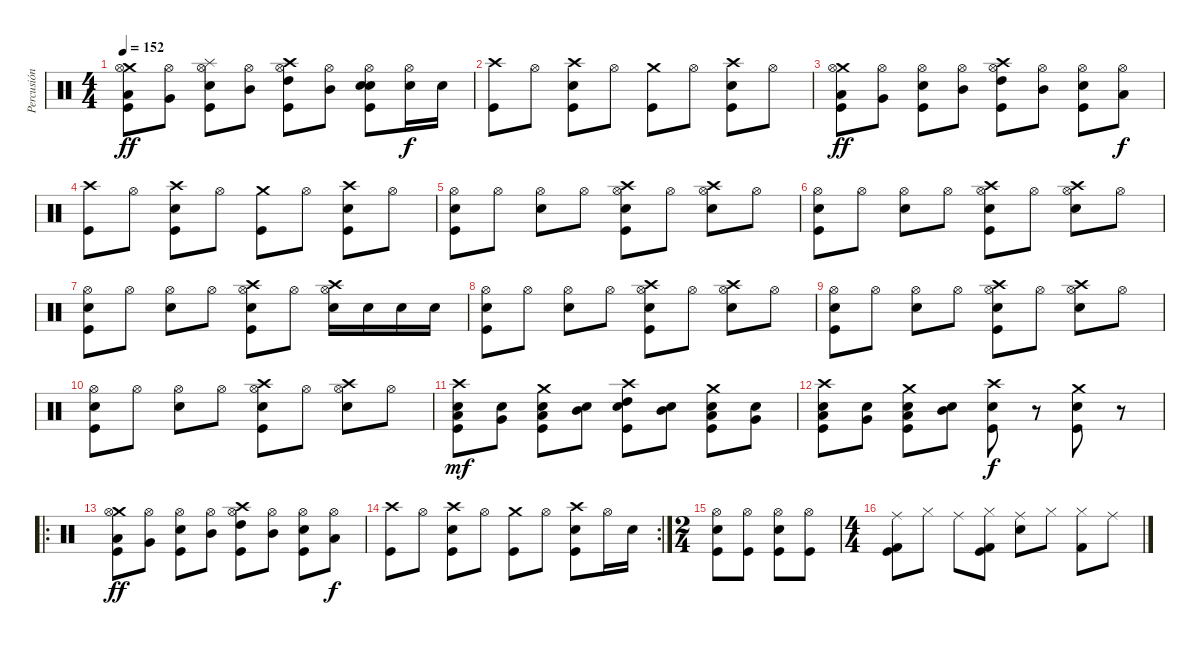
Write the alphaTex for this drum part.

\track ("Percusión" "Percusión") {instrument percussion}
\staff {score}
\articulation defaults
\ts (4 4)
\tempo 152
\clef neutral
\ks c
("Low Floor Tom (hit)" "Crash medium (hit)" "Kick (hit)" "Hi-Hat (open)").8{dy ff} ("Very Low Tom (hit)" "Hi-Hat (open)").8 ("Electric Snare (hit)" "Splash (hit)" "Kick (hit)" "Hi-Hat (open)").8 ("Mid Tom (hit)" "Hi-Hat (open)").8 ("High Tom (hit)" "Crash high (hit)" "Kick (hit)" "Hi-Hat (open)").8 ("Mid Tom (hit)" "Hi-Hat (open)").8 ("Electric Snare (hit)" "Snare (hit)" "Kick (hit)" "Hi-Hat (open)").8 ("Electric Snare (hit)" "Hi-Hat (open)").16{dy f} "Electric Snare (hit)".16 |
("Crash high (hit)" "Kick (hit)").8 "Hi-Hat (open)".8 ("Crash high (hit)" "Electric Snare (hit)" "Kick (hit)").8 "Hi-Hat (open)".8 ("Crash medium (hit)" "Kick (hit)").8 "Hi-Hat (open)".8 ("Crash high (hit)" "Electric Snare (hit)" "Kick (hit)").8 "Hi-Hat (open)".8 |
("Low Floor Tom (hit)" "Crash medium (hit)" "Kick (hit)" "Hi-Hat (open)").8{dy ff} ("Very Low Tom (hit)" "Hi-Hat (open)").8 ("Electric Snare (hit)" "Kick (hit)" "Hi-Hat (open)").8 ("Mid Tom (hit)" "Hi-Hat (open)").8 ("High Tom (hit)" "Crash high (hit)" "Kick (hit)" "Hi-Hat (open)").8 ("Mid Tom (hit)" "Hi-Hat (open)").8 ("Electric Snare (hit)" "Kick (hit)" "Hi-Hat (open)").8 ("Low Tom (hit)" "Hi-Hat (open)").8{dy f} |
("Crash high (hit)" "Kick (hit)").8 "Hi-Hat (open)".8 ("Crash high (hit)" "Electric Snare (hit)" "Kick (hit)").8 "Hi-Hat (open)".8 ("Crash medium (hit)" "Kick (hit)").8 "Hi-Hat (open)".8 ("Crash high (hit)" "Electric Snare (hit)" "Kick (hit)").8 "Hi-Hat (open)".8 |
("Hi-Hat (open)" "Electric Snare (hit)" "Kick (hit)").8 "Hi-Hat (open)".8 ("Hi-Hat (open)" "Electric Snare (hit)").8 "Hi-Hat (open)".8 ("Hi-Hat (open)" "Electric Snare (hit)" "Crash high (hit)" "Kick (hit)").8 "Hi-Hat (open)".8 ("Hi-Hat (open)" "Electric Snare (hit)" "Crash high (hit)").8 "Hi-Hat (open)".8 |
("Hi-Hat (open)" "Electric Snare (hit)" "Kick (hit)").8 "Hi-Hat (open)".8 ("Hi-Hat (open)" "Electric Snare (hit)").8 "Hi-Hat (open)".8 ("Hi-Hat (open)" "Electric Snare (hit)" "Crash high (hit)" "Kick (hit)").8 "Hi-Hat (open)".8 ("Hi-Hat (open)" "Electric Snare (hit)" "Crash high (hit)").8 "Hi-Hat (open)".8 |
("Hi-Hat (open)" "Electric Snare (hit)" "Kick (hit)").8 "Hi-Hat (open)".8 ("Hi-Hat (open)" "Electric Snare (hit)").8 "Hi-Hat (open)".8 ("Hi-Hat (open)" "Electric Snare (hit)" "Crash high (hit)" "Kick (hit)").8 "Hi-Hat (open)".8 ("Hi-Hat (open)" "Electric Snare (hit)" "Crash high (hit)").16 "Electric Snare (hit)".16 "Electric Snare (hit)".16 "Electric Snare (hit)".16 |
("Hi-Hat (open)" "Electric Snare (hit)" "Kick (hit)").8 "Hi-Hat (open)".8 ("Hi-Hat (open)" "Electric Snare (hit)").8 "Hi-Hat (open)".8 ("Hi-Hat (open)" "Electric Snare (hit)" "Crash high (hit)" "Kick (hit)").8 "Hi-Hat (open)".8 ("Hi-Hat (open)" "Electric Snare (hit)" "Crash high (hit)").8 "Hi-Hat (open)".8 |
("Hi-Hat (open)" "Electric Snare (hit)" "Kick (hit)").8 "Hi-Hat (open)".8 ("Hi-Hat (open)" "Electric Snare (hit)").8 "Hi-Hat (open)".8 ("Hi-Hat (open)" "Electric Snare (hit)" "Crash high (hit)" "Kick (hit)").8 "Hi-Hat (open)".8 ("Hi-Hat (open)" "Electric Snare (hit)" "Crash high (hit)").8 "Hi-Hat (open)".8 |
("Hi-Hat (open)" "Electric Snare (hit)" "Kick (hit)").8 "Hi-Hat (open)".8 ("Hi-Hat (open)" "Electric Snare (hit)").8 "Hi-Hat (open)".8 ("Hi-Hat (open)" "Electric Snare (hit)" "Crash high (hit)" "Kick (hit)").8 "Hi-Hat (open)".8 ("Hi-Hat (open)" "Electric Snare (hit)" "Crash high (hit)").8 "Hi-Hat (open)".8 |
("Electric Snare (hit)" "Low Floor Tom (hit)" "Crash high (hit)" "Kick (hit)").8{dy mf} ("Electric Snare (hit)" "Very Low Tom (hit)").8 ("Electric Snare (hit)" "Low Tom (hit)" "Crash medium (hit)" "Kick (hit)").8 ("Electric Snare (hit)" "Mid Tom (hit)").8 ("Electric Snare (hit)" "High Tom (hit)" "Crash high (hit)" "Kick (hit)").8 ("Electric Snare (hit)" "Mid Tom (hit)").8 ("Electric Snare (hit)" "Low Tom (hit)" "Crash medium (hit)" "Kick (hit)").8 ("Electric Snare (hit)" "Very Low Tom (hit)").8 |
("Electric Snare (hit)" "Low Floor Tom (hit)" "Crash high (hit)" "Kick (hit)").8 ("Electric Snare (hit)" "Very Low Tom (hit)").8 ("Electric Snare (hit)" "Low Tom (hit)" "Crash medium (hit)" "Kick (hit)").8 ("Electric Snare (hit)" "Mid Tom (hit)").8 ("Electric Snare (hit)" "Crash high (hit)" "Kick (hit)").8{dy f} r.8 ("Electric Snare (hit)" "Crash medium (hit)" "Kick (hit)").8 r.8 |
\ro
("Low Floor Tom (hit)" "Crash medium (hit)" "Kick (hit)" "Hi-Hat (open)").8{dy ff} ("Very Low Tom (hit)" "Hi-Hat (open)").8 ("Electric Snare (hit)" "Kick (hit)" "Hi-Hat (open)").8 ("Mid Tom (hit)" "Hi-Hat (open)").8 ("High Tom (hit)" "Crash high (hit)" "Kick (hit)" "Hi-Hat (open)").8 ("Mid Tom (hit)" "Hi-Hat (open)").8 ("Electric Snare (hit)" "Kick (hit)" "Hi-Hat (open)").8 ("Low Tom (hit)" "Hi-Hat (open)").8{dy f} |
\rc 2
("Crash high (hit)" "Kick (hit)").8 "Hi-Hat (open)".8 ("Crash high (hit)" "Electric Snare (hit)" "Kick (hit)").8 "Hi-Hat (open)".8 ("Crash medium (hit)" "Kick (hit)").8 "Hi-Hat (open)".8 ("Crash high (hit)" "Electric Snare (hit)" "Kick (hit)").8 "Hi-Hat (open)".16 "Electric Snare (hit)".16 |
\ts (2 4)
("Hi-Hat (open)" "Electric Snare (hit)" "Kick (hit)").8 ("Hi-Hat (open)" "Kick (hit)").8 ("Hi-Hat (open)" "Electric Snare (hit)" "Kick (hit)").8 ("Hi-Hat (open)" "Kick (hit)").8 |
\ts (4 4)
("Ride (middle)" "Kick (hit) 2" "Kick (hit)").8 "Hi-Hat (closed)".8 "Ride (middle)".8 ("Hi-Hat (closed)" "Kick (hit) 2" "Kick (hit)").8 ("Ride (middle)" "Electric Snare (hit)").8 "Hi-Hat (closed)".8 ("Hi-Hat (closed)" "Kick (hit) 2").8 "Ride (middle)".8
